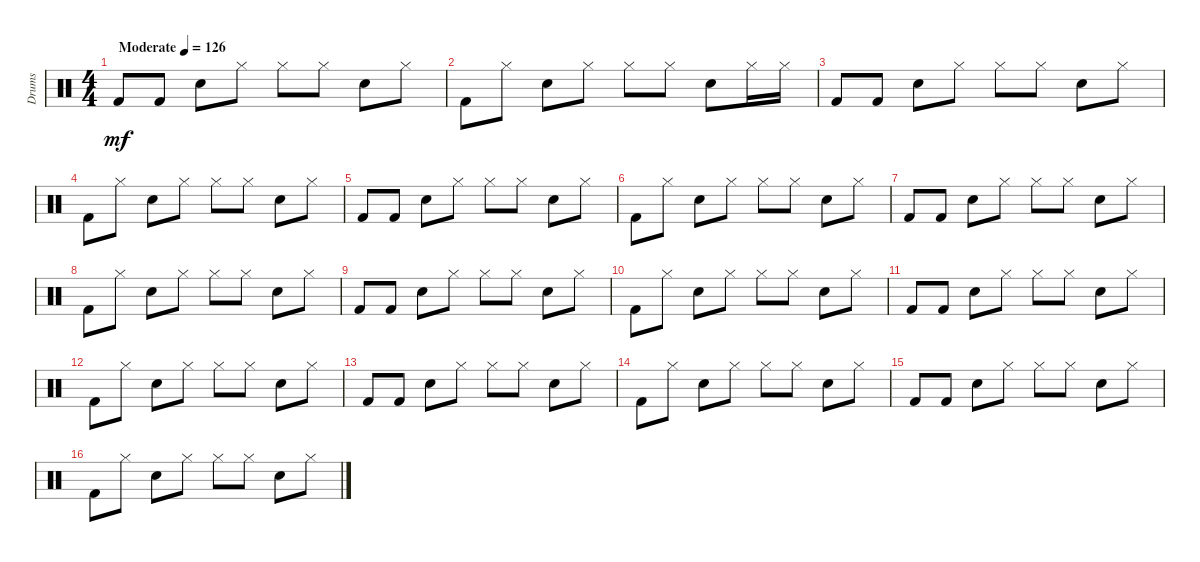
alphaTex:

\track ("Drums" "Drums") {instrument percussion}
\staff {score}
\articulation defaults
\ts (4 4)
\tempo (126 "Moderate")
\clef neutral
\ks c "Kick (hit) 2".8{dy mf} "Kick (hit) 2".8 "Snare (hit) 2".8 "Hi-Hat (closed)".8 "Hi-Hat (closed)".8 "Hi-Hat (closed)".8 "Snare (hit) 2".8 "Hi-Hat (closed)".8
|
"Kick (hit) 2".8 "Hi-Hat (closed)".8 "Snare (hit) 2".8 "Hi-Hat (closed)".8 "Hi-Hat (closed)".8 "Hi-Hat (closed)".8 "Snare (hit) 2".8 "Hi-Hat (closed)".16 "Hi-Hat (closed)".16 |
"Kick (hit) 2".8 "Kick (hit) 2".8 "Snare (hit) 2".8 "Hi-Hat (closed)".8 "Hi-Hat (closed)".8 "Hi-Hat (closed)".8 "Snare (hit) 2".8 "Hi-Hat (closed)".8 |
"Kick (hit) 2".8 "Hi-Hat (closed)".8 "Snare (hit) 2".8 "Hi-Hat (closed)".8 "Hi-Hat (closed)".8 "Hi-Hat (closed)".8 "Snare (hit) 2".8 "Hi-Hat (closed)".8 |
"Kick (hit) 2".8 "Kick (hit) 2".8 "Snare (hit) 2".8 "Hi-Hat (closed)".8 "Hi-Hat (closed)".8 "Hi-Hat (closed)".8 "Snare (hit) 2".8 "Hi-Hat (closed)".8 |
"Kick (hit) 2".8 "Hi-Hat (closed)".8 "Snare (hit) 2".8 "Hi-Hat (closed)".8 "Hi-Hat (closed)".8 "Hi-Hat (closed)".8 "Snare (hit) 2".8 "Hi-Hat (closed)".8 |
"Kick (hit) 2".8 "Kick (hit) 2".8 "Snare (hit) 2".8 "Hi-Hat (closed)".8 "Hi-Hat (closed)".8 "Hi-Hat (closed)".8 "Snare (hit) 2".8 "Hi-Hat (closed)".8 |
"Kick (hit) 2".8 "Hi-Hat (closed)".8 "Snare (hit) 2".8 "Hi-Hat (closed)".8 "Hi-Hat (closed)".8 "Hi-Hat (closed)".8 "Snare (hit) 2".8 "Hi-Hat (closed)".8 |
"Kick (hit) 2".8 "Kick (hit) 2".8 "Snare (hit) 2".8 "Hi-Hat (closed)".8 "Hi-Hat (closed)".8 "Hi-Hat (closed)".8 "Snare (hit) 2".8 "Hi-Hat (closed)".8 |
"Kick (hit) 2".8 "Hi-Hat (closed)".8 "Snare (hit) 2".8 "Hi-Hat (closed)".8 "Hi-Hat (closed)".8 "Hi-Hat (closed)".8 "Snare (hit) 2".8 "Hi-Hat (closed)".8 |
"Kick (hit) 2".8 "Kick (hit) 2".8 "Snare (hit) 2".8 "Hi-Hat (closed)".8 "Hi-Hat (closed)".8 "Hi-Hat (closed)".8 "Snare (hit) 2".8 "Hi-Hat (closed)".8 |
"Kick (hit) 2".8 "Hi-Hat (closed)".8 "Snare (hit) 2".8 "Hi-Hat (closed)".8 "Hi-Hat (closed)".8 "Hi-Hat (closed)".8 "Snare (hit) 2".8 "Hi-Hat (closed)".8 |
"Kick (hit) 2".8 "Kick (hit) 2".8 "Snare (hit) 2".8 "Hi-Hat (closed)".8 "Hi-Hat (closed)".8 "Hi-Hat (closed)".8 "Snare (hit) 2".8 "Hi-Hat (closed)".8 |
"Kick (hit) 2".8 "Hi-Hat (closed)".8 "Snare (hit) 2".8 "Hi-Hat (closed)".8 "Hi-Hat (closed)".8 "Hi-Hat (closed)".8 "Snare (hit) 2".8 "Hi-Hat (closed)".8 |
"Kick (hit) 2".8 "Kick (hit) 2".8 "Snare (hit) 2".8 "Hi-Hat (closed)".8 "Hi-Hat (closed)".8 "Hi-Hat (closed)".8 "Snare (hit) 2".8 "Hi-Hat (closed)".8 |
"Kick (hit) 2".8 "Hi-Hat (closed)".8 "Snare (hit) 2".8 "Hi-Hat (closed)".8 "Hi-Hat (closed)".8 "Hi-Hat (closed)".8 "Snare (hit) 2".8 "Hi-Hat (closed)".8
